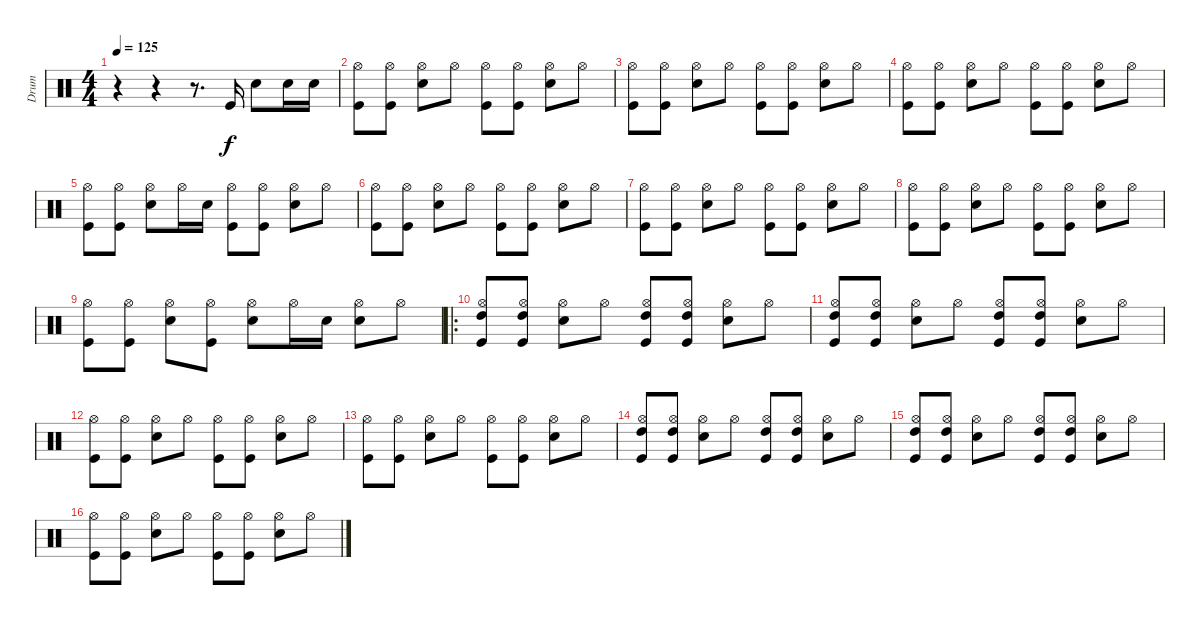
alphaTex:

\track ("Drum" "Drum") {instrument percussion}
\staff {score}
\articulation defaults
\ts (4 4)
\tempo 125
\clef neutral
\ks c
r.4{dy f} r.4 r.8{d} "Kick (hit)".16 "Snare (hit) 2".8 "Snare (hit) 2".16 "Snare (hit) 2".16 |
("Hi-Hat (open)" "Kick (hit)").8 ("Hi-Hat (open)" "Kick (hit)").8 ("Hi-Hat (open)" "Snare (hit) 2").8 "Hi-Hat (open)".8 ("Hi-Hat (open)" "Kick (hit)").8 ("Hi-Hat (open)" "Kick (hit)").8 ("Hi-Hat (open)" "Snare (hit) 2").8 "Hi-Hat (open)".8 |
("Hi-Hat (open)" "Kick (hit)").8 ("Hi-Hat (open)" "Kick (hit)").8 ("Hi-Hat (open)" "Snare (hit) 2").8 "Hi-Hat (open)".8 ("Hi-Hat (open)" "Kick (hit)").8 ("Hi-Hat (open)" "Kick (hit)").8 ("Hi-Hat (open)" "Snare (hit) 2").8 "Hi-Hat (open)".8 |
("Hi-Hat (open)" "Kick (hit)").8 ("Hi-Hat (open)" "Kick (hit)").8 ("Hi-Hat (open)" "Snare (hit) 2").8 "Hi-Hat (open)".8 ("Hi-Hat (open)" "Kick (hit)").8 ("Hi-Hat (open)" "Kick (hit)").8 ("Hi-Hat (open)" "Snare (hit) 2").8 "Hi-Hat (open)".8 |
("Hi-Hat (open)" "Kick (hit)").8 ("Hi-Hat (open)" "Kick (hit)").8 ("Hi-Hat (open)" "Snare (hit) 2").8 "Hi-Hat (open)".16 "Snare (hit) 2".16 ("Hi-Hat (open)" "Kick (hit)").8 ("Hi-Hat (open)" "Kick (hit)").8 ("Hi-Hat (open)" "Snare (hit) 2").8 "Hi-Hat (open)".8 |
("Hi-Hat (open)" "Kick (hit)").8 ("Hi-Hat (open)" "Kick (hit)").8 ("Hi-Hat (open)" "Snare (hit) 2").8 "Hi-Hat (open)".8 ("Hi-Hat (open)" "Kick (hit)").8 ("Hi-Hat (open)" "Kick (hit)").8 ("Hi-Hat (open)" "Snare (hit) 2").8 "Hi-Hat (open)".8 |
("Hi-Hat (open)" "Kick (hit)").8 ("Hi-Hat (open)" "Kick (hit)").8 ("Hi-Hat (open)" "Snare (hit) 2").8 "Hi-Hat (open)".8 ("Hi-Hat (open)" "Kick (hit)").8 ("Hi-Hat (open)" "Kick (hit)").8 ("Hi-Hat (open)" "Snare (hit) 2").8 "Hi-Hat (open)".8 |
("Hi-Hat (open)" "Kick (hit)").8 ("Hi-Hat (open)" "Kick (hit)").8 ("Hi-Hat (open)" "Snare (hit) 2").8 "Hi-Hat (open)".8 ("Hi-Hat (open)" "Kick (hit)").8 ("Hi-Hat (open)" "Kick (hit)").8 ("Hi-Hat (open)" "Snare (hit) 2").8 "Hi-Hat (open)".8 |
("Hi-Hat (open)" "Kick (hit)").8 ("Hi-Hat (open)" "Kick (hit)").8 ("Hi-Hat (open)" "Snare (hit) 2").8 ("Hi-Hat (open)" "Kick (hit)").8 ("Hi-Hat (open)" "Snare (hit) 2").8 "Hi-Hat (open)".16 "Snare (hit) 2".16 ("Hi-Hat (open)" "Snare (hit) 2").8 "Hi-Hat (open)".8 |
\ro
("Hi-Hat (open)" "Kick (hit)" "High Tom (hit)").8 ("Hi-Hat (open)" "Kick (hit)" "High Tom (hit)").8 ("Hi-Hat (open)" "Snare (hit) 2").8 "Hi-Hat (open)".8 ("Hi-Hat (open)" "Kick (hit)" "High Tom (hit)").8 ("Hi-Hat (open)" "Kick (hit)" "High Tom (hit)").8 ("Hi-Hat (open)" "Snare (hit) 2").8 "Hi-Hat (open)".8 |
("Hi-Hat (open)" "Kick (hit)" "High Tom (hit)").8 ("Hi-Hat (open)" "Kick (hit)" "High Tom (hit)").8 ("Hi-Hat (open)" "Snare (hit) 2").8 "Hi-Hat (open)".8 ("Hi-Hat (open)" "Kick (hit)" "High Tom (hit)").8 ("Hi-Hat (open)" "Kick (hit)" "High Tom (hit)").8 ("Hi-Hat (open)" "Snare (hit) 2").8 "Hi-Hat (open)".8 |
("Hi-Hat (open)" "Kick (hit)").8 ("Hi-Hat (open)" "Kick (hit)").8 ("Hi-Hat (open)" "Snare (hit) 2").8 "Hi-Hat (open)".8 ("Hi-Hat (open)" "Kick (hit)").8 ("Hi-Hat (open)" "Kick (hit)").8 ("Hi-Hat (open)" "Snare (hit) 2").8 "Hi-Hat (open)".8 |
("Hi-Hat (open)" "Kick (hit)").8 ("Hi-Hat (open)" "Kick (hit)").8 ("Hi-Hat (open)" "Snare (hit) 2").8 "Hi-Hat (open)".8 ("Hi-Hat (open)" "Kick (hit)").8 ("Hi-Hat (open)" "Kick (hit)").8 ("Hi-Hat (open)" "Snare (hit) 2").8 "Hi-Hat (open)".8 |
("Hi-Hat (open)" "Kick (hit)" "High Tom (hit)").8 ("Hi-Hat (open)" "Kick (hit)" "High Tom (hit)").8 ("Hi-Hat (open)" "Snare (hit) 2").8 "Hi-Hat (open)".8 ("Hi-Hat (open)" "Kick (hit)" "High Tom (hit)").8 ("Hi-Hat (open)" "Kick (hit)" "High Tom (hit)").8 ("Hi-Hat (open)" "Snare (hit) 2").8 "Hi-Hat (open)".8 |
("Hi-Hat (open)" "Kick (hit)" "High Tom (hit)").8 ("Hi-Hat (open)" "Kick (hit)" "High Tom (hit)").8 ("Hi-Hat (open)" "Snare (hit) 2").8 "Hi-Hat (open)".8 ("Hi-Hat (open)" "Kick (hit)" "High Tom (hit)").8 ("Hi-Hat (open)" "Kick (hit)" "High Tom (hit)").8 ("Hi-Hat (open)" "Snare (hit) 2").8 "Hi-Hat (open)".8 |
("Hi-Hat (open)" "Kick (hit)").8 ("Hi-Hat (open)" "Kick (hit)").8 ("Hi-Hat (open)" "Snare (hit) 2").8 "Hi-Hat (open)".8 ("Hi-Hat (open)" "Kick (hit)").8 ("Hi-Hat (open)" "Kick (hit)").8 ("Hi-Hat (open)" "Snare (hit) 2").8 "Hi-Hat (open)".8
